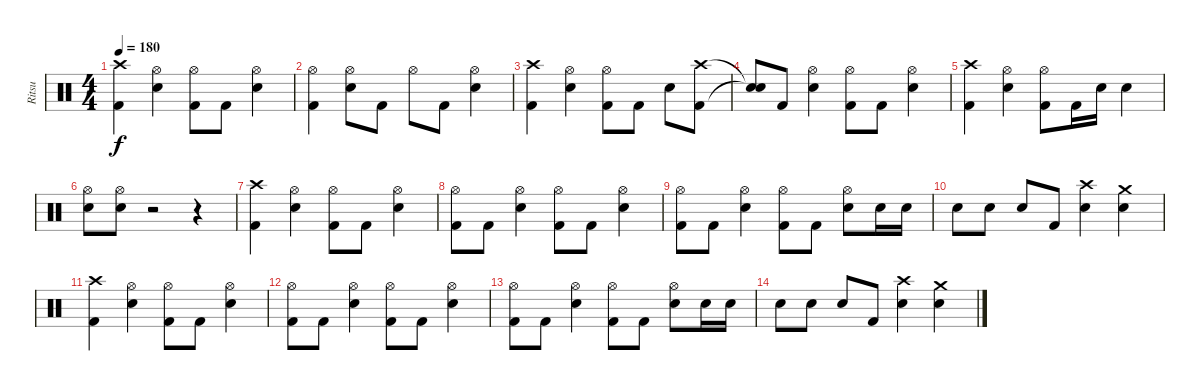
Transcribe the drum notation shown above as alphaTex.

\track ("Ritsu" "Ritsu") {instrument percussion}
\staff {score}
\articulation defaults
\ts (4 4)
\tempo 180
\clef neutral
\ks c
("Crash high (hit)" "Kick (hit) 2").4{dy f} ("Hi-Hat (open)" "Snare (hit) 2").4 ("Hi-Hat (open)" "Kick (hit) 2").8 "Kick (hit) 2".8 ("Hi-Hat (open)" "Snare (hit) 2").4 |
("Hi-Hat (open)" "Kick (hit) 2").4 ("Hi-Hat (open)" "Snare (hit) 2").8 "Kick (hit) 2".8 "Hi-Hat (open)".8 "Kick (hit) 2".8 ("Hi-Hat (open)" "Snare (hit) 2").4 |
("Crash high (hit)" "Kick (hit) 2").4 ("Hi-Hat (open)" "Snare (hit) 2").4 ("Hi-Hat (open)" "Kick (hit) 2").8 "Kick (hit) 2".8 "Snare (hit) 2".8 ("Crash high (hit)" "Kick (hit) 2").8 |
("Snare (hit)"{t} "Snare (hit)"{t}).8 "Kick (hit) 2".8 ("Hi-Hat (open)" "Snare (hit) 2").4 ("Hi-Hat (open)" "Kick (hit) 2").8 "Kick (hit) 2".8 ("Hi-Hat (open)" "Snare (hit) 2").4 |
("Crash high (hit)" "Kick (hit) 2").4 ("Hi-Hat (open)" "Snare (hit) 2").4 ("Hi-Hat (open)" "Kick (hit) 2").8 "Kick (hit) 2".16 "Snare (hit) 2".16 "Snare (hit) 2".4 |
("Hi-Hat (open)" "Snare (hit) 2").8 ("Hi-Hat (open)" "Snare (hit) 2").8 r.2 r.4 |
("Crash high (hit)" "Kick (hit) 2").4 ("Hi-Hat (open)" "Snare (hit) 2").4 ("Hi-Hat (open)" "Kick (hit) 2").8 "Kick (hit) 2".8 ("Hi-Hat (open)" "Snare (hit) 2").4 |
("Hi-Hat (open)" "Kick (hit) 2").8 "Kick (hit) 2".8 ("Hi-Hat (open)" "Snare (hit) 2").4 ("Hi-Hat (open)" "Kick (hit) 2").8 "Kick (hit) 2".8 ("Hi-Hat (open)" "Snare (hit) 2").4 |
("Hi-Hat (open)" "Kick (hit) 2").8 "Kick (hit) 2".8 ("Hi-Hat (open)" "Snare (hit) 2").4 ("Hi-Hat (open)" "Kick (hit) 2").8 "Kick (hit) 2".8 ("Hi-Hat (open)" "Snare (hit) 2").8 "Snare (hit) 2".16 "Snare (hit) 2".16 |
"Snare (hit) 2".8 "Snare (hit) 2".8 "Snare (hit) 2".8 "Kick (hit) 2".8 ("Crash high (hit)" "Snare (hit) 2").4 ("Crash medium (hit)" "Snare (hit) 2").4 |
("Crash high (hit)" "Kick (hit) 2").4 ("Hi-Hat (open)" "Snare (hit) 2").4 ("Hi-Hat (open)" "Kick (hit) 2").8 "Kick (hit) 2".8 ("Hi-Hat (open)" "Snare (hit) 2").4 |
("Hi-Hat (open)" "Kick (hit) 2").8 "Kick (hit) 2".8 ("Hi-Hat (open)" "Snare (hit) 2").4 ("Hi-Hat (open)" "Kick (hit) 2").8 "Kick (hit) 2".8 ("Hi-Hat (open)" "Snare (hit) 2").4 |
("Hi-Hat (open)" "Kick (hit) 2").8 "Kick (hit) 2".8 ("Hi-Hat (open)" "Snare (hit) 2").4 ("Hi-Hat (open)" "Kick (hit) 2").8 "Kick (hit) 2".8 ("Hi-Hat (open)" "Snare (hit) 2").8 "Snare (hit) 2".16 "Snare (hit) 2".16 |
"Snare (hit) 2".8 "Snare (hit) 2".8 "Snare (hit) 2".8 "Kick (hit) 2".8 ("Crash high (hit)" "Snare (hit) 2").4 ("Crash medium (hit)" "Snare (hit) 2").4
